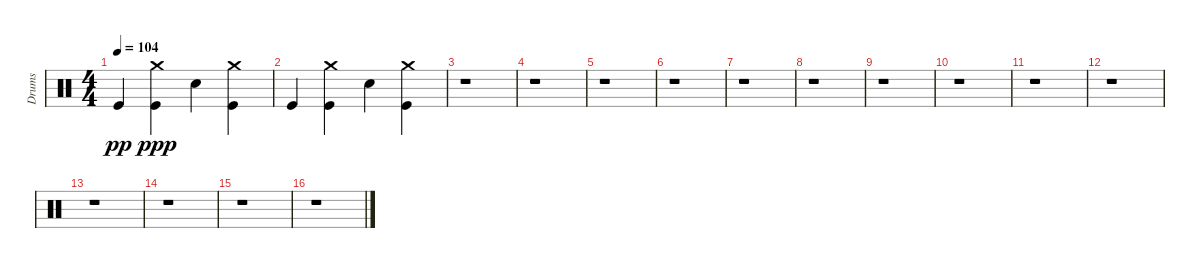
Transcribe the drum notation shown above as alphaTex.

\track ("Drums" "Drums") {instrument percussion}
\staff {score}
\articulation defaults
\ts (4 4)
\tempo 104
\clef neutral
\ks c "Kick (hit)".4{dy pp}
("Kick (hit)" "Crash medium (hit)").4{dy ppp} "Electric Snare (hit)".4 ("Kick (hit)" "Crash medium (hit)").4 |
"Kick (hit)".4 ("Kick (hit)" "Crash medium (hit)").4 "Electric Snare (hit)".4 ("Kick (hit)" "Crash medium (hit)").4 |
r.1 |
r.1 |
r.1 |
r.1 |
r.1 |
r.1 |
r.1 |
r.1 |
r.1 |
r.1 |
r.1 |
r.1 |
r.1 |
r.1
